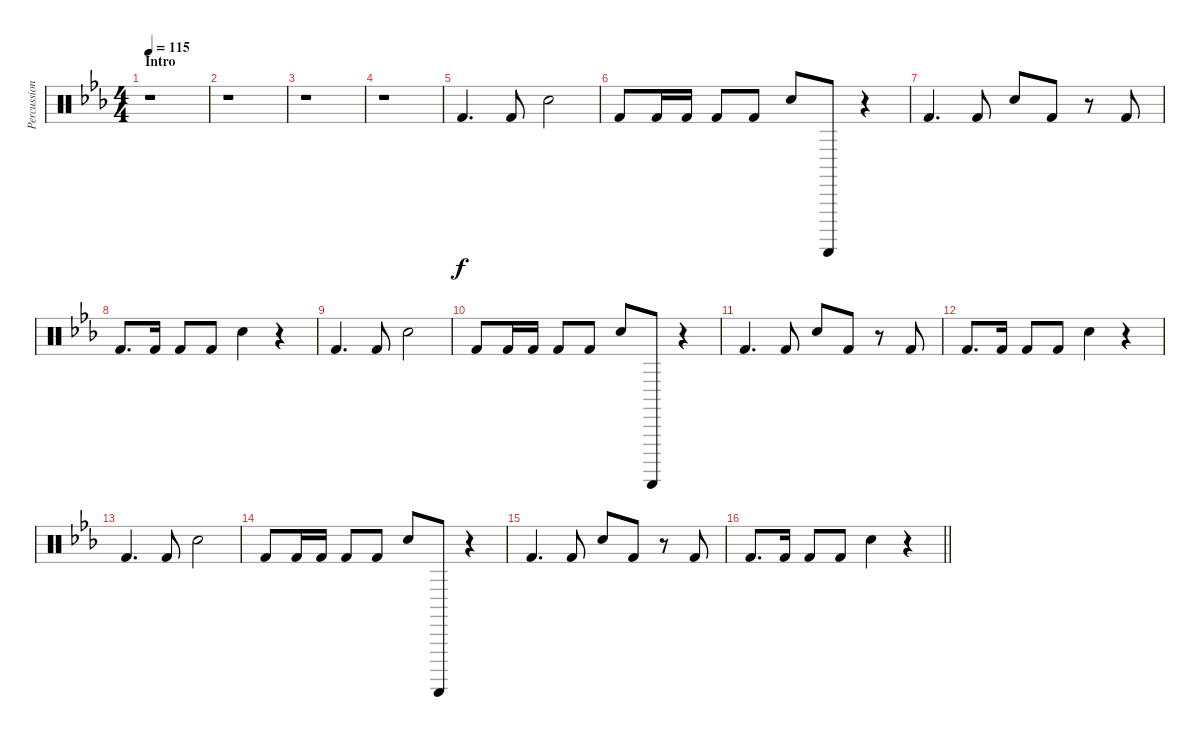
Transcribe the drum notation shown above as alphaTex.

\track ("Percussions" "Percussion") {instrument percussion}
\staff {score}
\articulation defaults
\ts (4 4)
\section ("" "Intro")
\tempo 115
\clef neutral
\ks eb
r.1{dy f} |
r.1 |
r.1 |
r.1 |
"Kick (hit) 2".4{d} "Kick (hit) 2".8 "Hand Clap (hit)".2 |
"Kick (hit) 2".8 "Kick (hit) 2".16 "Kick (hit) 2".16 "Kick (hit) 2".8 "Kick (hit) 2".8 "Hand Clap (hit)".8 "Guiro (scrap-return)".8 r.4 |
"Kick (hit) 2".4{d} "Kick (hit) 2".8 "Hand Clap (hit)".8 "Kick (hit) 2".8 r.8 "Kick (hit) 2".8 |
"Kick (hit) 2".8{d} "Kick (hit) 2".16 "Kick (hit) 2".8 "Kick (hit) 2".8 "Hand Clap (hit)".4 r.4 |
"Kick (hit) 2".4{d} "Kick (hit) 2".8 "Hand Clap (hit)".2 |
"Kick (hit) 2".8 "Kick (hit) 2".16 "Kick (hit) 2".16 "Kick (hit) 2".8 "Kick (hit) 2".8 "Hand Clap (hit)".8 "Guiro (scrap-return)".8 r.4 |
"Kick (hit) 2".4{d} "Kick (hit) 2".8 "Hand Clap (hit)".8 "Kick (hit) 2".8 r.8 "Kick (hit) 2".8 |
"Kick (hit) 2".8{d} "Kick (hit) 2".16 "Kick (hit) 2".8 "Kick (hit) 2".8 "Hand Clap (hit)".4 r.4 |
"Kick (hit) 2".4{d} "Kick (hit) 2".8 "Hand Clap (hit)".2 |
"Kick (hit) 2".8 "Kick (hit) 2".16 "Kick (hit) 2".16 "Kick (hit) 2".8 "Kick (hit) 2".8 "Hand Clap (hit)".8 "Guiro (scrap-return)".8 r.4 |
"Kick (hit) 2".4{d} "Kick (hit) 2".8 "Hand Clap (hit)".8 "Kick (hit) 2".8 r.8 "Kick (hit) 2".8 |
\barLineRight lightlight "Kick (hit) 2".8{d} "Kick (hit) 2".16 "Kick (hit) 2".8 "Kick (hit) 2".8 "Hand Clap (hit)".4
r.4
